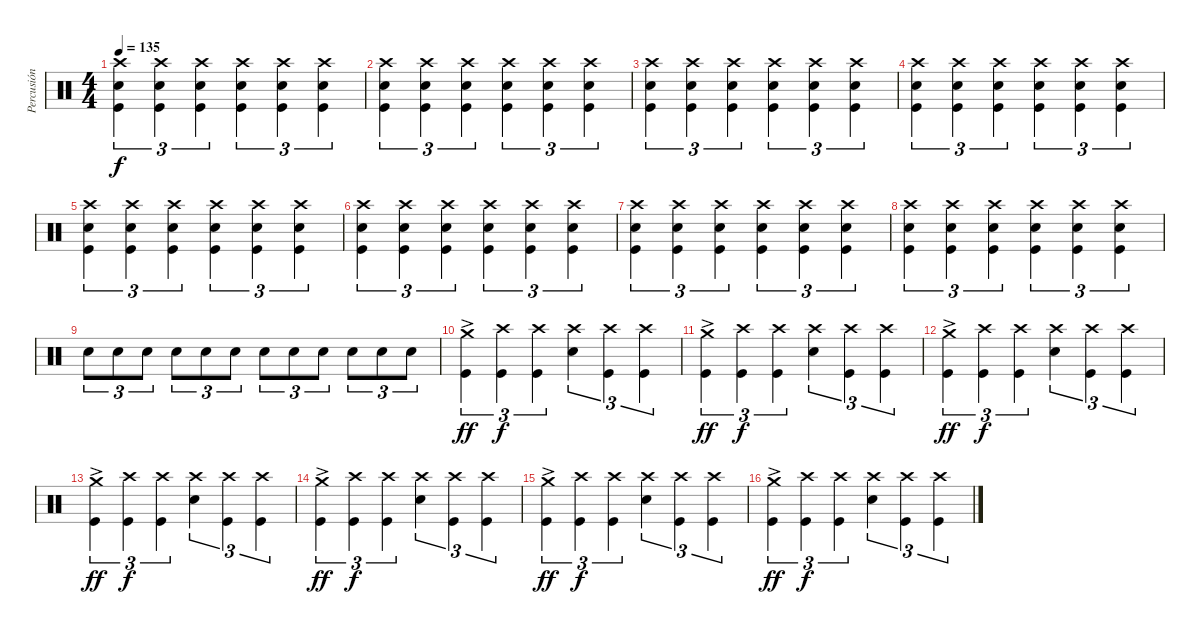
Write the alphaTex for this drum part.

\track ("Percusión" "Percusión") {instrument percussion}
\staff {score}
\articulation defaults
\ts (4 4)
\tempo 135
\clef neutral
\ks c
("Crash high (hit)" "Electric Snare (hit)" "Kick (hit)").4{tu (3 2) dy f} ("Crash high (hit)" "Electric Snare (hit)" "Kick (hit)").4{tu (3 2)} ("Crash high (hit)" "Electric Snare (hit)" "Kick (hit)").4{tu (3 2)} ("Crash high (hit)" "Electric Snare (hit)" "Kick (hit)").4{tu (3 2)} ("Crash high (hit)" "Electric Snare (hit)" "Kick (hit)").4{tu (3 2)} ("Crash high (hit)" "Electric Snare (hit)" "Kick (hit)").4{tu (3 2)} |
("Crash high (hit)" "Electric Snare (hit)" "Kick (hit)").4{tu (3 2)} ("Crash high (hit)" "Electric Snare (hit)" "Kick (hit)").4{tu (3 2)} ("Crash high (hit)" "Electric Snare (hit)" "Kick (hit)").4{tu (3 2)} ("Crash high (hit)" "Electric Snare (hit)" "Kick (hit)").4{tu (3 2)} ("Crash high (hit)" "Electric Snare (hit)" "Kick (hit)").4{tu (3 2)} ("Crash high (hit)" "Electric Snare (hit)" "Kick (hit)").4{tu (3 2)} |
("Crash high (hit)" "Electric Snare (hit)" "Kick (hit)").4{tu (3 2)} ("Crash high (hit)" "Electric Snare (hit)" "Kick (hit)").4{tu (3 2)} ("Crash high (hit)" "Electric Snare (hit)" "Kick (hit)").4{tu (3 2)} ("Crash high (hit)" "Electric Snare (hit)" "Kick (hit)").4{tu (3 2)} ("Crash high (hit)" "Electric Snare (hit)" "Kick (hit)").4{tu (3 2)} ("Crash high (hit)" "Electric Snare (hit)" "Kick (hit)").4{tu (3 2)} |
("Crash high (hit)" "Electric Snare (hit)" "Kick (hit)").4{tu (3 2)} ("Crash high (hit)" "Electric Snare (hit)" "Kick (hit)").4{tu (3 2)} ("Crash high (hit)" "Electric Snare (hit)" "Kick (hit)").4{tu (3 2)} ("Crash high (hit)" "Electric Snare (hit)" "Kick (hit)").4{tu (3 2)} ("Crash high (hit)" "Electric Snare (hit)" "Kick (hit)").4{tu (3 2)} ("Crash high (hit)" "Electric Snare (hit)" "Kick (hit)").4{tu (3 2)} |
("Crash high (hit)" "Electric Snare (hit)" "Kick (hit)").4{tu (3 2)} ("Crash high (hit)" "Electric Snare (hit)" "Kick (hit)").4{tu (3 2)} ("Crash high (hit)" "Electric Snare (hit)" "Kick (hit)").4{tu (3 2)} ("Crash high (hit)" "Electric Snare (hit)" "Kick (hit)").4{tu (3 2)} ("Crash high (hit)" "Electric Snare (hit)" "Kick (hit)").4{tu (3 2)} ("Crash high (hit)" "Electric Snare (hit)" "Kick (hit)").4{tu (3 2)} |
("Crash high (hit)" "Electric Snare (hit)" "Kick (hit)").4{tu (3 2)} ("Crash high (hit)" "Electric Snare (hit)" "Kick (hit)").4{tu (3 2)} ("Crash high (hit)" "Electric Snare (hit)" "Kick (hit)").4{tu (3 2)} ("Crash high (hit)" "Electric Snare (hit)" "Kick (hit)").4{tu (3 2)} ("Crash high (hit)" "Electric Snare (hit)" "Kick (hit)").4{tu (3 2)} ("Crash high (hit)" "Electric Snare (hit)" "Kick (hit)").4{tu (3 2)} |
("Crash high (hit)" "Electric Snare (hit)" "Kick (hit)").4{tu (3 2)} ("Crash high (hit)" "Electric Snare (hit)" "Kick (hit)").4{tu (3 2)} ("Crash high (hit)" "Electric Snare (hit)" "Kick (hit)").4{tu (3 2)} ("Crash high (hit)" "Electric Snare (hit)" "Kick (hit)").4{tu (3 2)} ("Crash high (hit)" "Electric Snare (hit)" "Kick (hit)").4{tu (3 2)} ("Crash high (hit)" "Electric Snare (hit)" "Kick (hit)").4{tu (3 2)} |
("Crash high (hit)" "Electric Snare (hit)" "Kick (hit)").4{tu (3 2)} ("Crash high (hit)" "Electric Snare (hit)" "Kick (hit)").4{tu (3 2)} ("Crash high (hit)" "Electric Snare (hit)" "Kick (hit)").4{tu (3 2)} ("Crash high (hit)" "Electric Snare (hit)" "Kick (hit)").4{tu (3 2)} ("Crash high (hit)" "Electric Snare (hit)" "Kick (hit)").4{tu (3 2)} ("Crash high (hit)" "Electric Snare (hit)" "Kick (hit)").4{tu (3 2)} |
"Electric Snare (hit)".8{tu (3 2)} "Electric Snare (hit)".8{tu (3 2)} "Electric Snare (hit)".8{tu (3 2)} "Electric Snare (hit)".8{tu (3 2)} "Electric Snare (hit)".8{tu (3 2)} "Electric Snare (hit)".8{tu (3 2)} "Electric Snare (hit)".8{tu (3 2)} "Electric Snare (hit)".8{tu (3 2)} "Electric Snare (hit)".8{tu (3 2)} "Electric Snare (hit)".8{tu (3 2)} "Electric Snare (hit)".8{tu (3 2)} "Electric Snare (hit)".8{tu (3 2)} |
("Crash medium (hit)"{ac} "Kick (hit)").4{tu (3 2) dy ff} ("Crash high (hit)" "Kick (hit)").4{tu (3 2) dy f} ("Crash high (hit)" "Kick (hit)").4{tu (3 2)} ("Crash high (hit)" "Electric Snare (hit)").4{tu (3 2)} ("Crash high (hit)" "Kick (hit)").4{tu (3 2)} ("Crash high (hit)" "Kick (hit)").4{tu (3 2)} |
("Crash medium (hit)"{ac} "Kick (hit)").4{tu (3 2) dy ff} ("Crash high (hit)" "Kick (hit)").4{tu (3 2) dy f} ("Crash high (hit)" "Kick (hit)").4{tu (3 2)} ("Crash high (hit)" "Electric Snare (hit)").4{tu (3 2)} ("Crash high (hit)" "Kick (hit)").4{tu (3 2)} ("Crash high (hit)" "Kick (hit)").4{tu (3 2)} |
("Crash medium (hit)"{ac} "Kick (hit)").4{tu (3 2) dy ff} ("Crash high (hit)" "Kick (hit)").4{tu (3 2) dy f} ("Crash high (hit)" "Kick (hit)").4{tu (3 2)} ("Crash high (hit)" "Electric Snare (hit)").4{tu (3 2)} ("Crash high (hit)" "Kick (hit)").4{tu (3 2)} ("Crash high (hit)" "Kick (hit)").4{tu (3 2)} |
("Crash medium (hit)"{ac} "Kick (hit)").4{tu (3 2) dy ff} ("Crash high (hit)" "Kick (hit)").4{tu (3 2) dy f} ("Crash high (hit)" "Kick (hit)").4{tu (3 2)} ("Crash high (hit)" "Electric Snare (hit)").4{tu (3 2)} ("Crash high (hit)" "Kick (hit)").4{tu (3 2)} ("Crash high (hit)" "Kick (hit)").4{tu (3 2)} |
("Crash medium (hit)"{ac} "Kick (hit)").4{tu (3 2) dy ff} ("Crash high (hit)" "Kick (hit)").4{tu (3 2) dy f} ("Crash high (hit)" "Kick (hit)").4{tu (3 2)} ("Crash high (hit)" "Electric Snare (hit)").4{tu (3 2)} ("Crash high (hit)" "Kick (hit)").4{tu (3 2)} ("Crash high (hit)" "Kick (hit)").4{tu (3 2)} |
("Crash medium (hit)"{ac} "Kick (hit)").4{tu (3 2) dy ff} ("Crash high (hit)" "Kick (hit)").4{tu (3 2) dy f} ("Crash high (hit)" "Kick (hit)").4{tu (3 2)} ("Crash high (hit)" "Electric Snare (hit)").4{tu (3 2)} ("Crash high (hit)" "Kick (hit)").4{tu (3 2)} ("Crash high (hit)" "Kick (hit)").4{tu (3 2)} |
("Crash medium (hit)"{ac} "Kick (hit)").4{tu (3 2) dy ff} ("Crash high (hit)" "Kick (hit)").4{tu (3 2) dy f} ("Crash high (hit)" "Kick (hit)").4{tu (3 2)} ("Crash high (hit)" "Electric Snare (hit)").4{tu (3 2)} ("Crash high (hit)" "Kick (hit)").4{tu (3 2)} ("Crash high (hit)" "Kick (hit)").4{tu (3 2)}
